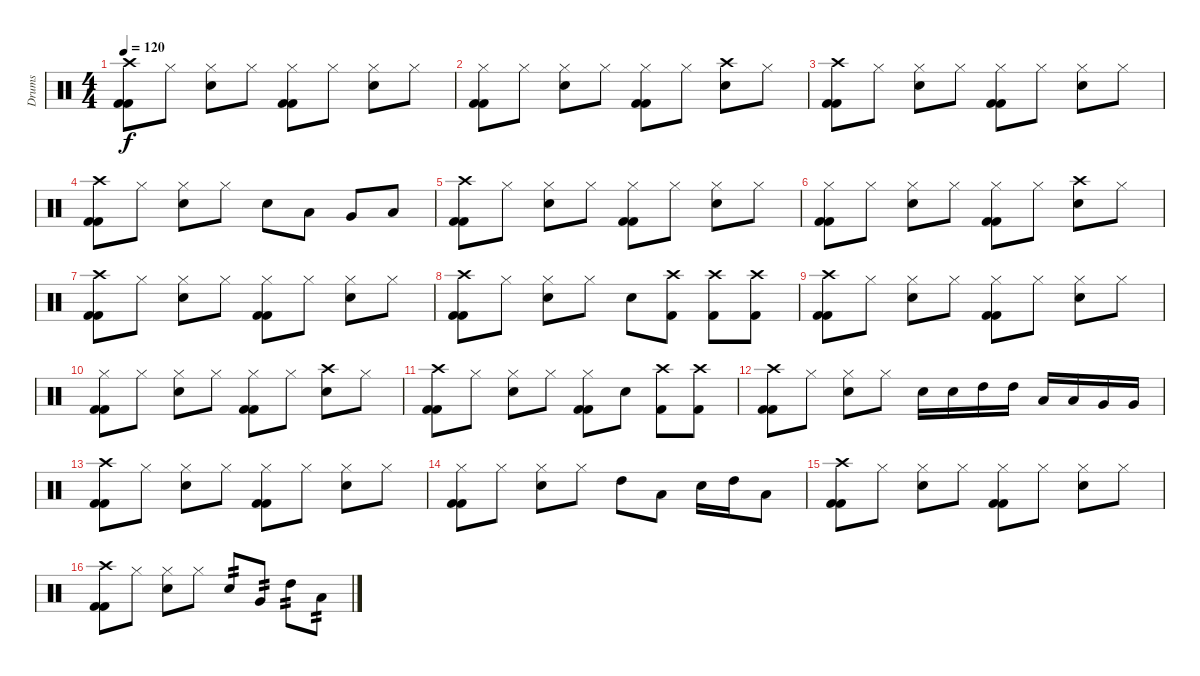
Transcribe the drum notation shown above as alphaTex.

\track ("Drums" "Drums") {instrument percussion}
\staff {score}
\articulation defaults
\ts (4 4)
\tempo 120
\clef neutral
\ks c
("Crash high (hit)" "Kick (hit) 2" "Kick (hit) 2").8{dy f} "Hi-Hat (closed)".8 ("Electric Snare (hit)" "Hi-Hat (closed)").8 "Hi-Hat (closed)".8 ("Kick (hit) 2" "Kick (hit) 2" "Hi-Hat (closed)").8 "Hi-Hat (closed)".8 ("Hi-Hat (closed)" "Electric Snare (hit)").8 "Hi-Hat (closed)".8 |
("Hi-Hat (closed)" "Kick (hit) 2" "Kick (hit) 2").8 "Hi-Hat (closed)".8 ("Electric Snare (hit)" "Hi-Hat (closed)").8 "Hi-Hat (closed)".8 ("Kick (hit) 2" "Kick (hit) 2" "Hi-Hat (closed)").8 "Hi-Hat (closed)".8 ("Crash high (hit)" "Electric Snare (hit)").8 "Hi-Hat (closed)".8 |
("Crash high (hit)" "Kick (hit) 2" "Kick (hit) 2").8 "Hi-Hat (closed)".8 ("Electric Snare (hit)" "Hi-Hat (closed)").8 "Hi-Hat (closed)".8 ("Kick (hit) 2" "Kick (hit) 2" "Hi-Hat (closed)").8 "Hi-Hat (closed)".8 ("Hi-Hat (closed)" "Electric Snare (hit)").8 "Hi-Hat (closed)".8 |
("Crash high (hit)" "Kick (hit) 2" "Kick (hit) 2").8 "Hi-Hat (closed)".8 ("Electric Snare (hit)" "Hi-Hat (closed)").8 "Hi-Hat (closed)".8 "Electric Snare (hit)".8 "Low Tom (hit)".8 "Very Low Tom (hit)".8 "Low Floor Tom (hit)".8 |
("Crash high (hit)" "Kick (hit) 2" "Kick (hit) 2").8 "Hi-Hat (closed)".8 ("Electric Snare (hit)" "Hi-Hat (closed)").8 "Hi-Hat (closed)".8 ("Kick (hit) 2" "Kick (hit) 2" "Hi-Hat (closed)").8 "Hi-Hat (closed)".8 ("Hi-Hat (closed)" "Electric Snare (hit)").8 "Hi-Hat (closed)".8 |
("Hi-Hat (closed)" "Kick (hit) 2" "Kick (hit) 2").8 "Hi-Hat (closed)".8 ("Electric Snare (hit)" "Hi-Hat (closed)").8 "Hi-Hat (closed)".8 ("Kick (hit) 2" "Kick (hit) 2" "Hi-Hat (closed)").8 "Hi-Hat (closed)".8 ("Crash high (hit)" "Electric Snare (hit)").8 "Hi-Hat (closed)".8 |
("Crash high (hit)" "Kick (hit) 2" "Kick (hit) 2").8 "Hi-Hat (closed)".8 ("Electric Snare (hit)" "Hi-Hat (closed)").8 "Hi-Hat (closed)".8 ("Kick (hit) 2" "Kick (hit) 2" "Hi-Hat (closed)").8 "Hi-Hat (closed)".8 ("Hi-Hat (closed)" "Electric Snare (hit)").8 "Hi-Hat (closed)".8 |
("Crash high (hit)" "Kick (hit) 2" "Kick (hit) 2").8 "Hi-Hat (closed)".8 ("Electric Snare (hit)" "Hi-Hat (closed)").8 "Hi-Hat (closed)".8 "Electric Snare (hit)".8 ("Kick (hit) 2" "Crash high (hit)").8 ("Crash high (hit)" "Kick (hit) 2").8 ("Kick (hit) 2" "Crash high (hit)").8 |
("Crash high (hit)" "Kick (hit) 2" "Kick (hit) 2").8 "Hi-Hat (closed)".8 ("Electric Snare (hit)" "Hi-Hat (closed)").8 "Hi-Hat (closed)".8 ("Kick (hit) 2" "Kick (hit) 2" "Hi-Hat (closed)").8 "Hi-Hat (closed)".8 ("Hi-Hat (closed)" "Electric Snare (hit)").8 "Hi-Hat (closed)".8 |
("Hi-Hat (closed)" "Kick (hit) 2" "Kick (hit) 2").8 "Hi-Hat (closed)".8 ("Electric Snare (hit)" "Hi-Hat (closed)").8 "Hi-Hat (closed)".8 ("Kick (hit) 2" "Kick (hit) 2" "Hi-Hat (closed)").8 "Hi-Hat (closed)".8 ("Crash high (hit)" "Electric Snare (hit)").8 "Hi-Hat (closed)".8 |
("Crash high (hit)" "Kick (hit) 2" "Kick (hit) 2").8 "Hi-Hat (closed)".8 ("Electric Snare (hit)" "Hi-Hat (closed)").8 "Hi-Hat (closed)".8 ("Kick (hit) 2" "Kick (hit) 2" "Hi-Hat (closed)").8 "Electric Snare (hit)".8 ("Crash high (hit)" "Kick (hit) 2").8 ("Kick (hit) 2" "Crash high (hit)").8 |
("Crash high (hit)" "Kick (hit) 2" "Kick (hit) 2").8 "Hi-Hat (closed)".8 ("Electric Snare (hit)" "Hi-Hat (closed)").8 "Hi-Hat (closed)".8 "Electric Snare (hit)".16 "Electric Snare (hit)".16 "High Tom (hit)".16 "High Tom (hit)".16 "Low Tom (hit)".16 "Low Tom (hit)".16 "Very Low Tom (hit)".16 "Very Low Tom (hit)".16 |
("Crash high (hit)" "Kick (hit) 2" "Kick (hit) 2").8 "Hi-Hat (closed)".8 ("Electric Snare (hit)" "Hi-Hat (closed)").8 "Hi-Hat (closed)".8 ("Kick (hit) 2" "Kick (hit) 2" "Hi-Hat (closed)").8 "Hi-Hat (closed)".8 ("Hi-Hat (closed)" "Electric Snare (hit)").8 "Hi-Hat (closed)".8 |
("Hi-Hat (closed)" "Kick (hit) 2" "Kick (hit) 2").8 "Hi-Hat (closed)".8 ("Electric Snare (hit)" "Hi-Hat (closed)").8 "Hi-Hat (closed)".8 "High Tom (hit)".8 "Low Tom (hit)".8 "Electric Snare (hit)".16 "High Tom (hit)".16 "Low Tom (hit)".8 |
("Crash high (hit)" "Kick (hit) 2" "Kick (hit) 2").8 "Hi-Hat (closed)".8 ("Electric Snare (hit)" "Hi-Hat (closed)").8 "Hi-Hat (closed)".8 ("Kick (hit) 2" "Kick (hit) 2" "Hi-Hat (closed)").8 "Hi-Hat (closed)".8 ("Hi-Hat (closed)" "Electric Snare (hit)").8 "Hi-Hat (closed)".8 |
("Crash high (hit)" "Kick (hit) 2" "Kick (hit) 2").8 "Hi-Hat (closed)".8 ("Electric Snare (hit)" "Hi-Hat (closed)").8 "Hi-Hat (closed)".8 "Electric Snare (hit)".8{tp 2} "Very Low Tom (hit)".8{tp 2} "High Tom (hit)".8{tp 2} "Low Tom (hit)".8{tp 2}
